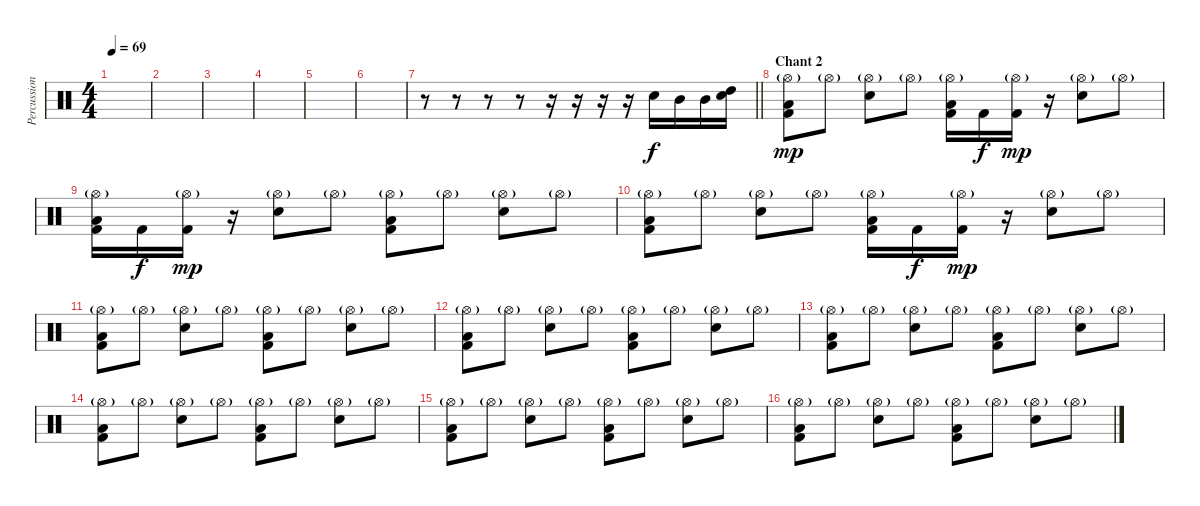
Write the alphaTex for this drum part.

\track ("Percussions" "Percussion") {instrument percussion}
\staff {score}
\articulation defaults
\ts (4 4)
\tempo 69
\clef neutral
\ks c
|
|
|
|
|
|
\barLineRight lightlight
r.8 r.8 r.8 r.8 r.16 r.16 r.16 r.16 "Electric Snare (hit)".16 "Mid Tom (hit)".16 "Mid Tom (hit)".16 ("Electric Snare (hit)" "High Tom (hit)").16 |
\section ("" "Chant 2")
("Hi-Hat (open)"{g} "Low Floor Tom (hit)" "Kick (hit) 2").8{dy mp} "Hi-Hat (open)"{g}.8 ("Hi-Hat (open)"{g} "Electric Snare (hit)").8 "Hi-Hat (open)"{g}.8 ("Hi-Hat (open)"{g} "Low Floor Tom (hit)" "Kick (hit) 2").16 "Kick (hit) 2".16{dy f} ("Hi-Hat (open)"{g} "Kick (hit) 2").16{dy mp} r.16 ("Hi-Hat (open)"{g} "Electric Snare (hit)").8 "Hi-Hat (open)"{g}.8 |
("Hi-Hat (open)"{g} "Low Floor Tom (hit)" "Kick (hit) 2").16 "Kick (hit) 2".16{dy f} ("Hi-Hat (open)"{g} "Kick (hit) 2").16{dy mp} r.16 ("Hi-Hat (open)"{g} "Electric Snare (hit)").8 "Hi-Hat (open)"{g}.8 ("Hi-Hat (open)"{g} "Low Floor Tom (hit)" "Kick (hit) 2").8 "Hi-Hat (open)"{g}.8 ("Hi-Hat (open)"{g} "Electric Snare (hit)").8 "Hi-Hat (open)"{g}.8 |
("Hi-Hat (open)"{g} "Low Floor Tom (hit)" "Kick (hit) 2").8 "Hi-Hat (open)"{g}.8 ("Hi-Hat (open)"{g} "Electric Snare (hit)").8 "Hi-Hat (open)"{g}.8 ("Hi-Hat (open)"{g} "Low Floor Tom (hit)" "Kick (hit) 2").16 "Kick (hit) 2".16{dy f} ("Hi-Hat (open)"{g} "Kick (hit) 2").16{dy mp} r.16 ("Hi-Hat (open)"{g} "Electric Snare (hit)").8 "Hi-Hat (open)"{g}.8 |
("Hi-Hat (open)"{g} "Low Floor Tom (hit)" "Kick (hit) 2").8 "Hi-Hat (open)"{g}.8 ("Hi-Hat (open)"{g} "Electric Snare (hit)").8 "Hi-Hat (open)"{g}.8 ("Hi-Hat (open)"{g} "Low Floor Tom (hit)" "Kick (hit) 2").8 "Hi-Hat (open)"{g}.8 ("Hi-Hat (open)"{g} "Electric Snare (hit)").8 "Hi-Hat (open)"{g}.8 |
("Hi-Hat (open)"{g} "Low Floor Tom (hit)" "Kick (hit) 2").8 "Hi-Hat (open)"{g}.8 ("Hi-Hat (open)"{g} "Electric Snare (hit)").8 "Hi-Hat (open)"{g}.8 ("Hi-Hat (open)"{g} "Low Floor Tom (hit)" "Kick (hit) 2").8 "Hi-Hat (open)"{g}.8 ("Hi-Hat (open)"{g} "Electric Snare (hit)").8 "Hi-Hat (open)"{g}.8 |
("Hi-Hat (open)"{g} "Low Floor Tom (hit)" "Kick (hit) 2").8 "Hi-Hat (open)"{g}.8 ("Hi-Hat (open)"{g} "Electric Snare (hit)").8 "Hi-Hat (open)"{g}.8 ("Hi-Hat (open)"{g} "Low Floor Tom (hit)" "Kick (hit) 2").8 "Hi-Hat (open)"{g}.8 ("Hi-Hat (open)"{g} "Electric Snare (hit)").8 "Hi-Hat (open)"{g}.8 |
("Hi-Hat (open)"{g} "Low Floor Tom (hit)" "Kick (hit) 2").8 "Hi-Hat (open)"{g}.8 ("Hi-Hat (open)"{g} "Electric Snare (hit)").8 "Hi-Hat (open)"{g}.8 ("Hi-Hat (open)"{g} "Low Floor Tom (hit)" "Kick (hit) 2").8 "Hi-Hat (open)"{g}.8 ("Hi-Hat (open)"{g} "Electric Snare (hit)").8 "Hi-Hat (open)"{g}.8 |
("Hi-Hat (open)"{g} "Low Floor Tom (hit)" "Kick (hit) 2").8 "Hi-Hat (open)"{g}.8 ("Hi-Hat (open)"{g} "Electric Snare (hit)").8 "Hi-Hat (open)"{g}.8 ("Hi-Hat (open)"{g} "Low Floor Tom (hit)" "Kick (hit) 2").8 "Hi-Hat (open)"{g}.8 ("Hi-Hat (open)"{g} "Electric Snare (hit)").8 "Hi-Hat (open)"{g}.8 |
("Hi-Hat (open)"{g} "Low Floor Tom (hit)" "Kick (hit) 2").8 "Hi-Hat (open)"{g}.8 ("Hi-Hat (open)"{g} "Electric Snare (hit)").8 "Hi-Hat (open)"{g}.8 ("Hi-Hat (open)"{g} "Low Floor Tom (hit)" "Kick (hit) 2").8 "Hi-Hat (open)"{g}.8 ("Hi-Hat (open)"{g} "Electric Snare (hit)").8 "Hi-Hat (open)"{g}.8
